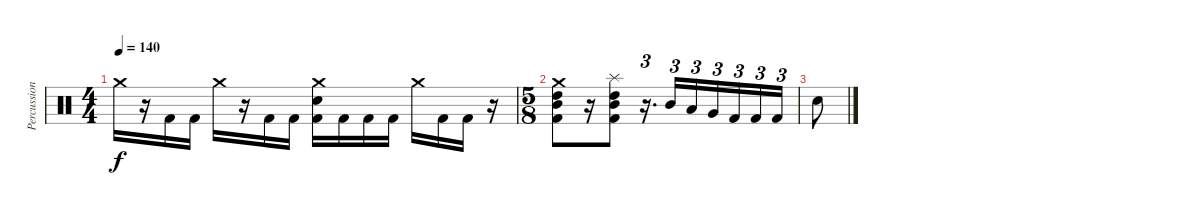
\track ("Percussion" "Percussion") {instrument percussion}
\staff {score}
\articulation defaults
\ts (4 4)
\tempo 140
\clef neutral
\ks c "Crash medium (hit)".16{dy f}
r.16 "Kick (hit) 2".16 "Kick (hit) 2".16 "Crash medium (hit)".16 r.16 "Kick (hit) 2".16 "Kick (hit) 2".16 ("Crash medium (hit)" "Electric Snare (hit)" "Kick (hit) 2").16 "Kick (hit) 2".16 "Kick (hit) 2".16 "Kick (hit) 2".16 "Crash medium (hit)".16 "Kick (hit) 2".16 "Kick (hit) 2".16 r.16 |
\ts (5 8)
("Crash medium (hit)" "High Tom (hit)" "Mid Tom (hit)" "Kick (hit) 2").8 r.16 ("Splash (hit)" "High Tom (hit)" "Mid Tom (hit)" "Kick (hit) 2").8 r.16{d tu (3 2)} "Mid Tom (hit)".16{tu (3 2)} "Low Tom (hit)".16{tu (3 2)} "Very Low Tom (hit)".16{tu (3 2)} "Kick (hit) 2".16{tu (3 2)} "Kick (hit) 2".16{tu (3 2)} "Kick (hit) 2".16{tu (3 2)} |
"Electric Snare (hit)".8
